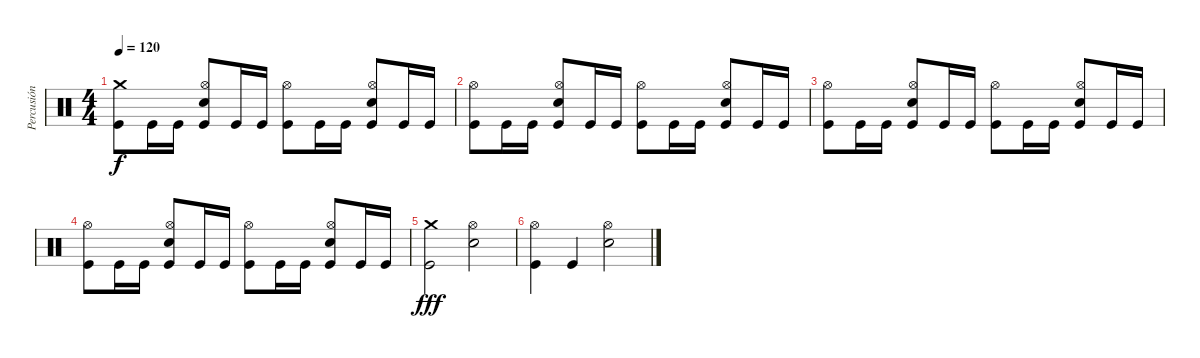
\track ("Percusión" "Percusión") {instrument percussion}
\staff {score}
\articulation defaults
\ts (4 4)
\tempo 120
\clef neutral
\ks c
("Crash medium (hit)" "Kick (hit)").8{dy f} "Kick (hit)".16 "Kick (hit)".16 ("Hi-Hat (open)" "Snare (hit) 2" "Kick (hit)").8 "Kick (hit)".16 "Kick (hit)".16 ("Hi-Hat (open)" "Kick (hit)").8 "Kick (hit)".16 "Kick (hit)".16 ("Hi-Hat (open)" "Snare (hit) 2" "Kick (hit)").8 "Kick (hit)".16 "Kick (hit)".16 |
("Hi-Hat (open)" "Kick (hit)").8 "Kick (hit)".16 "Kick (hit)".16 ("Hi-Hat (open)" "Snare (hit) 2" "Kick (hit)").8 "Kick (hit)".16 "Kick (hit)".16 ("Hi-Hat (open)" "Kick (hit)").8 "Kick (hit)".16 "Kick (hit)".16 ("Hi-Hat (open)" "Snare (hit) 2" "Kick (hit)").8 "Kick (hit)".16 "Kick (hit)".16 |
("Hi-Hat (open)" "Kick (hit)").8 "Kick (hit)".16 "Kick (hit)".16 ("Hi-Hat (open)" "Snare (hit) 2" "Kick (hit)").8 "Kick (hit)".16 "Kick (hit)".16 ("Hi-Hat (open)" "Kick (hit)").8 "Kick (hit)".16 "Kick (hit)".16 ("Hi-Hat (open)" "Snare (hit) 2" "Kick (hit)").8 "Kick (hit)".16 "Kick (hit)".16 |
("Hi-Hat (open)" "Kick (hit)").8 "Kick (hit)".16 "Kick (hit)".16 ("Hi-Hat (open)" "Snare (hit) 2" "Kick (hit)").8 "Kick (hit)".16 "Kick (hit)".16 ("Hi-Hat (open)" "Kick (hit)").8 "Kick (hit)".16 "Kick (hit)".16 ("Hi-Hat (open)" "Snare (hit) 2" "Kick (hit)").8 "Kick (hit)".16 "Kick (hit)".16 |
("Crash medium (hit)" "Kick (hit)").2{dy fff} ("Hi-Hat (open)" "Snare (hit) 2").2 |
("Hi-Hat (open)" "Kick (hit)").4 "Kick (hit)".4 ("Hi-Hat (open)" "Snare (hit) 2").2
